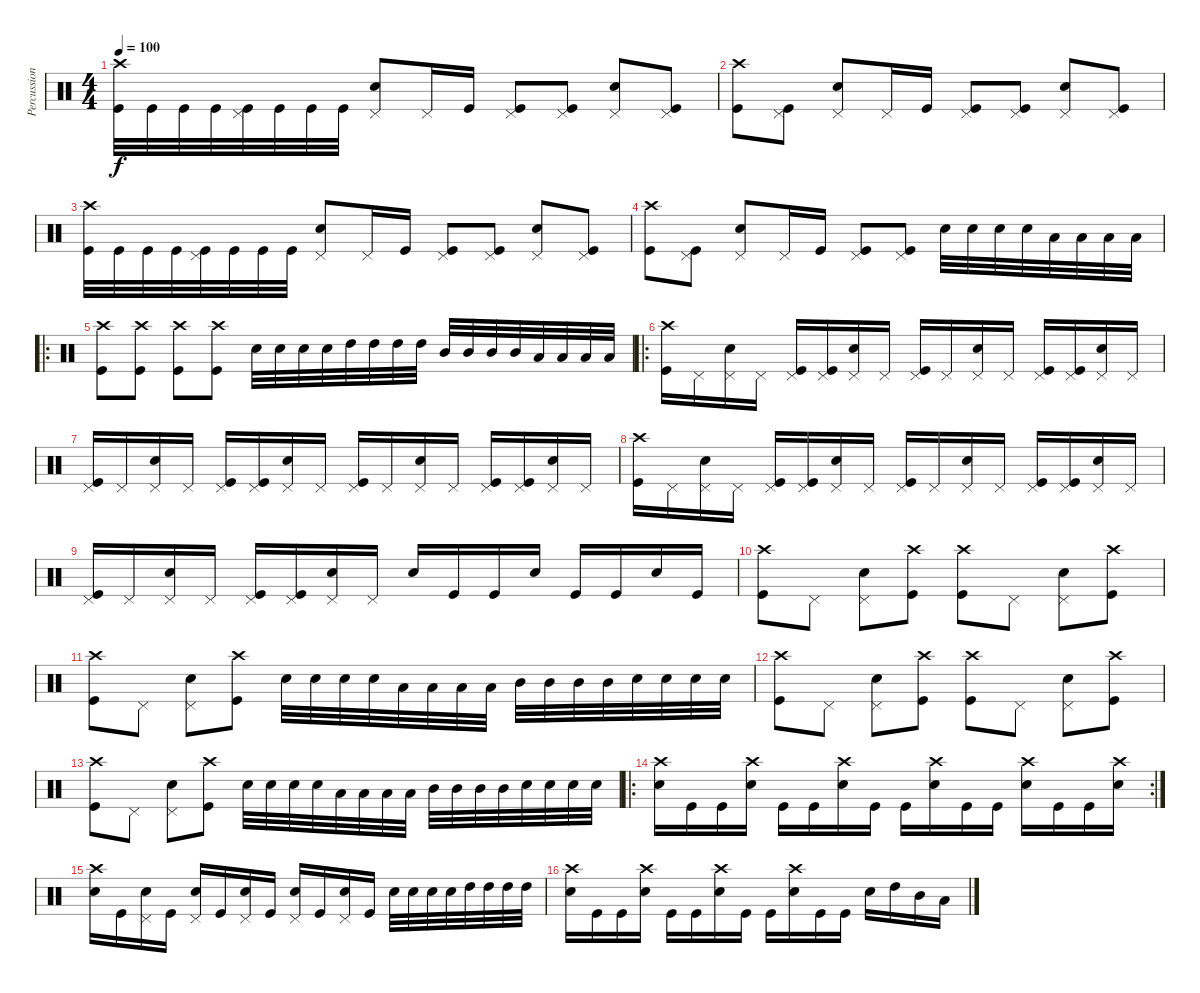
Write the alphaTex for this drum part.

\track ("Percussion" "Percussion") {instrument percussion}
\staff {score}
\articulation defaults
\ts (4 4)
\tempo 100
\clef neutral
\ks c
("Crash high (hit)" "Kick (hit)").32{dy f} "Kick (hit)".32 "Kick (hit)".32 "Kick (hit)".32 ("Pedal Hi-Hat (hit)" "Kick (hit)").32 "Kick (hit)".32 "Kick (hit)".32 "Kick (hit)".32 ("Pedal Hi-Hat (hit)" "Electric Snare (hit)").8 "Pedal Hi-Hat (hit)".16 "Kick (hit)".16 ("Pedal Hi-Hat (hit)" "Kick (hit)").8 ("Pedal Hi-Hat (hit)" "Kick (hit)").8 ("Pedal Hi-Hat (hit)" "Electric Snare (hit)").8 ("Pedal Hi-Hat (hit)" "Kick (hit)").8 |
("Crash high (hit)" "Kick (hit)").8 ("Pedal Hi-Hat (hit)" "Kick (hit)").8 ("Pedal Hi-Hat (hit)" "Electric Snare (hit)").8 "Pedal Hi-Hat (hit)".16 "Kick (hit)".16 ("Pedal Hi-Hat (hit)" "Kick (hit)").8 ("Pedal Hi-Hat (hit)" "Kick (hit)").8 ("Pedal Hi-Hat (hit)" "Electric Snare (hit)").8 ("Pedal Hi-Hat (hit)" "Kick (hit)").8 |
("Crash high (hit)" "Kick (hit)").32 "Kick (hit)".32 "Kick (hit)".32 "Kick (hit)".32 ("Pedal Hi-Hat (hit)" "Kick (hit)").32 "Kick (hit)".32 "Kick (hit)".32 "Kick (hit)".32 ("Pedal Hi-Hat (hit)" "Electric Snare (hit)").8 "Pedal Hi-Hat (hit)".16 "Kick (hit)".16 ("Pedal Hi-Hat (hit)" "Kick (hit)").8 ("Pedal Hi-Hat (hit)" "Kick (hit)").8 ("Pedal Hi-Hat (hit)" "Electric Snare (hit)").8 ("Pedal Hi-Hat (hit)" "Kick (hit)").8 |
("Crash high (hit)" "Kick (hit)").8 ("Pedal Hi-Hat (hit)" "Kick (hit)").8 ("Pedal Hi-Hat (hit)" "Electric Snare (hit)").8 "Pedal Hi-Hat (hit)".16 "Kick (hit)".16 ("Pedal Hi-Hat (hit)" "Kick (hit)").8 ("Pedal Hi-Hat (hit)" "Kick (hit)").8 "Electric Snare (hit)".32 "Electric Snare (hit)".32 "Electric Snare (hit)".32 "Electric Snare (hit)".32 "Low Tom (hit)".32 "Low Tom (hit)".32 "Low Tom (hit)".32 "Low Tom (hit)".32 |
\ro
("Crash high (hit)" "Kick (hit)").8 ("Crash high (hit)" "Kick (hit)").8 ("Crash high (hit)" "Kick (hit)").8 ("Crash high (hit)" "Kick (hit)").8 "Electric Snare (hit)".32 "Electric Snare (hit)".32 "Electric Snare (hit)".32 "Electric Snare (hit)".32 "High Tom (hit)".32 "High Tom (hit)".32 "High Tom (hit)".32 "High Tom (hit)".32 "Mid Tom (hit)".32 "Mid Tom (hit)".32 "Mid Tom (hit)".32 "Mid Tom (hit)".32 "Low Tom (hit)".32 "Low Tom (hit)".32 "Low Tom (hit)".32 "Low Tom (hit)".32 |
\ro
("Crash high (hit)" "Kick (hit)").16 "Pedal Hi-Hat (hit)".16 ("Pedal Hi-Hat (hit)" "Electric Snare (hit)").16 "Pedal Hi-Hat (hit)".16 ("Pedal Hi-Hat (hit)" "Kick (hit)").16 ("Pedal Hi-Hat (hit)" "Kick (hit)").16 ("Pedal Hi-Hat (hit)" "Electric Snare (hit)").16 "Pedal Hi-Hat (hit)".16 ("Pedal Hi-Hat (hit)" "Kick (hit)").16 "Pedal Hi-Hat (hit)".16 ("Pedal Hi-Hat (hit)" "Electric Snare (hit)").16 "Pedal Hi-Hat (hit)".16 ("Pedal Hi-Hat (hit)" "Kick (hit)").16 ("Pedal Hi-Hat (hit)" "Kick (hit)").16 ("Pedal Hi-Hat (hit)" "Electric Snare (hit)").16 "Pedal Hi-Hat (hit)".16 |
("Pedal Hi-Hat (hit)" "Kick (hit)").16 "Pedal Hi-Hat (hit)".16 ("Pedal Hi-Hat (hit)" "Electric Snare (hit)").16 "Pedal Hi-Hat (hit)".16 ("Pedal Hi-Hat (hit)" "Kick (hit)").16 ("Pedal Hi-Hat (hit)" "Kick (hit)").16 ("Pedal Hi-Hat (hit)" "Electric Snare (hit)").16 "Pedal Hi-Hat (hit)".16 ("Pedal Hi-Hat (hit)" "Kick (hit)").16 "Pedal Hi-Hat (hit)".16 ("Pedal Hi-Hat (hit)" "Electric Snare (hit)").16 "Pedal Hi-Hat (hit)".16 ("Pedal Hi-Hat (hit)" "Kick (hit)").16 ("Pedal Hi-Hat (hit)" "Kick (hit)").16 ("Pedal Hi-Hat (hit)" "Electric Snare (hit)").16 "Pedal Hi-Hat (hit)".16 |
("Crash high (hit)" "Kick (hit)").16 "Pedal Hi-Hat (hit)".16 ("Pedal Hi-Hat (hit)" "Electric Snare (hit)").16 "Pedal Hi-Hat (hit)".16 ("Pedal Hi-Hat (hit)" "Kick (hit)").16 ("Pedal Hi-Hat (hit)" "Kick (hit)").16 ("Pedal Hi-Hat (hit)" "Electric Snare (hit)").16 "Pedal Hi-Hat (hit)".16 ("Pedal Hi-Hat (hit)" "Kick (hit)").16 "Pedal Hi-Hat (hit)".16 ("Pedal Hi-Hat (hit)" "Electric Snare (hit)").16 "Pedal Hi-Hat (hit)".16 ("Pedal Hi-Hat (hit)" "Kick (hit)").16 ("Pedal Hi-Hat (hit)" "Kick (hit)").16 ("Pedal Hi-Hat (hit)" "Electric Snare (hit)").16 "Pedal Hi-Hat (hit)".16 |
("Pedal Hi-Hat (hit)" "Kick (hit)").16 "Pedal Hi-Hat (hit)".16 ("Pedal Hi-Hat (hit)" "Electric Snare (hit)").16 "Pedal Hi-Hat (hit)".16 ("Pedal Hi-Hat (hit)" "Kick (hit)").16 ("Pedal Hi-Hat (hit)" "Kick (hit)").16 ("Pedal Hi-Hat (hit)" "Electric Snare (hit)").16 "Pedal Hi-Hat (hit)".16 "Electric Snare (hit)".16 "Kick (hit)".16 "Kick (hit)".16 "Electric Snare (hit)".16 "Kick (hit)".16 "Kick (hit)".16 "Electric Snare (hit)".16 "Kick (hit)".16 |
("Crash high (hit)" "Kick (hit)").8 "Pedal Hi-Hat (hit)".8 ("Pedal Hi-Hat (hit)" "Electric Snare (hit)").8 ("Crash high (hit)" "Kick (hit)").8 ("Crash high (hit)" "Kick (hit)").8 "Pedal Hi-Hat (hit)".8 ("Pedal Hi-Hat (hit)" "Electric Snare (hit)").8 ("Crash high (hit)" "Kick (hit)").8 |
("Crash high (hit)" "Kick (hit)").8 "Pedal Hi-Hat (hit)".8 ("Pedal Hi-Hat (hit)" "Electric Snare (hit)").8 ("Crash high (hit)" "Kick (hit)").8 "Electric Snare (hit)".32 "Electric Snare (hit)".32 "Electric Snare (hit)".32 "Electric Snare (hit)".32 "Low Tom (hit)".32 "Low Tom (hit)".32 "Low Tom (hit)".32 "Low Tom (hit)".32 "Mid Tom (hit)".32 "Mid Tom (hit)".32 "Mid Tom (hit)".32 "Mid Tom (hit)".32 "Electric Snare (hit)".32 "Electric Snare (hit)".32 "Electric Snare (hit)".32 "Electric Snare (hit)".32 |
("Crash high (hit)" "Kick (hit)").8 "Pedal Hi-Hat (hit)".8 ("Pedal Hi-Hat (hit)" "Electric Snare (hit)").8 ("Crash high (hit)" "Kick (hit)").8 ("Crash high (hit)" "Kick (hit)").8 "Pedal Hi-Hat (hit)".8 ("Pedal Hi-Hat (hit)" "Electric Snare (hit)").8 ("Crash high (hit)" "Kick (hit)").8 |
("Crash high (hit)" "Kick (hit)").8 "Pedal Hi-Hat (hit)".8 ("Pedal Hi-Hat (hit)" "Electric Snare (hit)").8 ("Crash high (hit)" "Kick (hit)").8 "Electric Snare (hit)".32 "Electric Snare (hit)".32 "Electric Snare (hit)".32 "Electric Snare (hit)".32 "Low Tom (hit)".32 "Low Tom (hit)".32 "Low Tom (hit)".32 "Low Tom (hit)".32 "Mid Tom (hit)".32 "Mid Tom (hit)".32 "Mid Tom (hit)".32 "Mid Tom (hit)".32 "Electric Snare (hit)".32 "Electric Snare (hit)".32 "Electric Snare (hit)".32 "Electric Snare (hit)".32 |
\ro
\rc 2
("Crash high (hit)" "Electric Snare (hit)").16 "Kick (hit)".16 "Kick (hit)".16 ("Crash high (hit)" "Electric Snare (hit)").16 "Kick (hit)".16 "Kick (hit)".16 ("Crash high (hit)" "Electric Snare (hit)").16 "Kick (hit)".16 "Kick (hit)".16 ("Crash high (hit)" "Electric Snare (hit)").16 "Kick (hit)".16 "Kick (hit)".16 ("Crash high (hit)" "Electric Snare (hit)").16 "Kick (hit)".16 "Kick (hit)".16 ("Crash high (hit)" "Electric Snare (hit)").16 |
("Crash high (hit)" "Electric Snare (hit)").16 "Kick (hit)".16 ("Pedal Hi-Hat (hit)" "Electric Snare (hit)").16 "Kick (hit)".16 ("Pedal Hi-Hat (hit)" "Electric Snare (hit)").16 "Kick (hit)".16 ("Pedal Hi-Hat (hit)" "Electric Snare (hit)").16 "Kick (hit)".16 ("Pedal Hi-Hat (hit)" "Electric Snare (hit)").16 "Kick (hit)".16 ("Pedal Hi-Hat (hit)" "Electric Snare (hit)").16 "Kick (hit)".16 "Electric Snare (hit)".32 "Electric Snare (hit)".32 "Electric Snare (hit)".32 "Electric Snare (hit)".32 "High Tom (hit)".32 "High Tom (hit)".32 "High Tom (hit)".32 "High Tom (hit)".32 |
("Crash high (hit)" "Electric Snare (hit)").16 "Kick (hit)".16 "Kick (hit)".16 ("Crash high (hit)" "Electric Snare (hit)").16 "Kick (hit)".16 "Kick (hit)".16 ("Crash high (hit)" "Electric Snare (hit)").16 "Kick (hit)".16 "Kick (hit)".16 ("Crash high (hit)" "Electric Snare (hit)").16 "Kick (hit)".16 "Kick (hit)".16 "Electric Snare (hit)".16 "High Tom (hit)".16 "Mid Tom (hit)".16 "Low Tom (hit)".16
